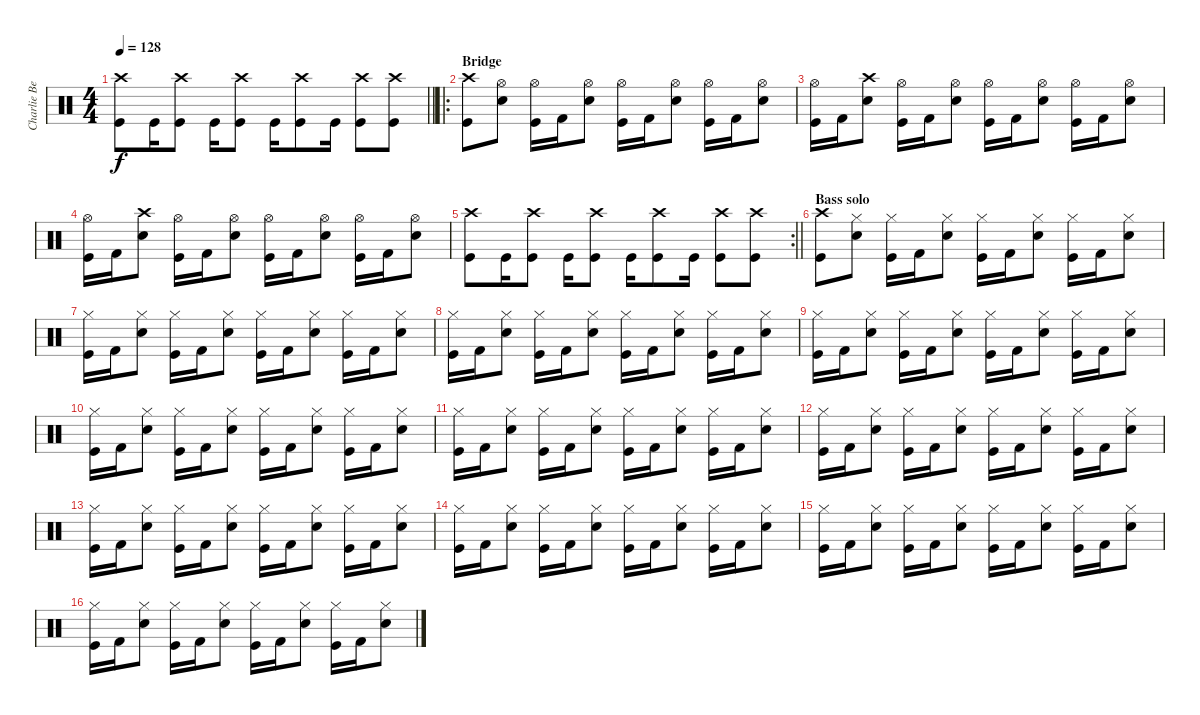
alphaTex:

\track ("Charlie Benante (Drums)" "Charlie Be") {instrument percussion}
\staff {score}
\articulation defaults
\ts (4 4)
\tempo 128
\clef neutral
\barLineRight lightlight
\ks c
("Crash high (hit)" "Kick (hit)").8{dy f} "Kick (hit)".16 ("Crash high (hit)" "Kick (hit)").8 "Kick (hit)".16 ("Crash high (hit)" "Kick (hit)").8 "Kick (hit)".16 ("Crash high (hit)" "Kick (hit)").8 "Kick (hit)".16 ("Crash high (hit)" "Kick (hit)").8 ("Crash high (hit)" "Kick (hit)").8 |
\ro
\section ("" "Bridge")
("Crash high (hit)" "Kick (hit)").8 ("Hi-Hat (open)" "Snare (hit) 2").8 ("Hi-Hat (open)" "Kick (hit)").16 "Kick (hit) 2".16 ("Hi-Hat (open)" "Snare (hit) 2").8 ("Hi-Hat (open)" "Kick (hit)").16 "Kick (hit) 2".16 ("Hi-Hat (open)" "Snare (hit) 2").8 ("Hi-Hat (open)" "Kick (hit)").16 "Kick (hit) 2".16 ("Hi-Hat (open)" "Snare (hit) 2").8 |
("Hi-Hat (open)" "Kick (hit)").16 "Kick (hit) 2".16 ("Crash high (hit)" "Snare (hit) 2").8 ("Hi-Hat (open)" "Kick (hit)").16 "Kick (hit) 2".16 ("Hi-Hat (open)" "Snare (hit) 2").8 ("Hi-Hat (open)" "Kick (hit)").16 "Kick (hit) 2".16 ("Hi-Hat (open)" "Snare (hit) 2").8 ("Hi-Hat (open)" "Kick (hit)").16 "Kick (hit) 2".16 ("Hi-Hat (open)" "Snare (hit) 2").8 |
("Hi-Hat (open)" "Kick (hit)").16 "Kick (hit) 2".16 ("Crash high (hit)" "Snare (hit) 2").8 ("Hi-Hat (open)" "Kick (hit)").16 "Kick (hit) 2".16 ("Hi-Hat (open)" "Snare (hit) 2").8 ("Hi-Hat (open)" "Kick (hit)").16 "Kick (hit) 2".16 ("Hi-Hat (open)" "Snare (hit) 2").8 ("Hi-Hat (open)" "Kick (hit)").16 "Kick (hit) 2".16 ("Hi-Hat (open)" "Snare (hit) 2").8 |
\rc 2
\barLineRight lightlight
("Crash high (hit)" "Kick (hit)").8 "Kick (hit)".16 ("Crash high (hit)" "Kick (hit)").8 "Kick (hit)".16 ("Crash high (hit)" "Kick (hit)").8 "Kick (hit)".16 ("Crash high (hit)" "Kick (hit)").8 "Kick (hit)".16 ("Crash high (hit)" "Kick (hit)").8 ("Crash high (hit)" "Kick (hit)").8 |
\section ("" "Bass solo")
("Crash high (hit)" "Kick (hit)").8 ("Hi-Hat (closed)" "Snare (hit) 2").8 ("Hi-Hat (closed)" "Kick (hit)").16 "Kick (hit) 2".16 ("Hi-Hat (closed)" "Snare (hit) 2").8 ("Hi-Hat (closed)" "Kick (hit)").16 "Kick (hit) 2".16 ("Hi-Hat (closed)" "Snare (hit) 2").8 ("Hi-Hat (closed)" "Kick (hit)").16 "Kick (hit) 2".16 ("Hi-Hat (closed)" "Snare (hit) 2").8 |
("Hi-Hat (closed)" "Kick (hit)").16 "Kick (hit) 2".16 ("Hi-Hat (closed)" "Snare (hit) 2").8 ("Hi-Hat (closed)" "Kick (hit)").16 "Kick (hit) 2".16 ("Hi-Hat (closed)" "Snare (hit) 2").8 ("Hi-Hat (closed)" "Kick (hit)").16 "Kick (hit) 2".16 ("Hi-Hat (closed)" "Snare (hit) 2").8 ("Hi-Hat (closed)" "Kick (hit)").16 "Kick (hit) 2".16 ("Hi-Hat (closed)" "Snare (hit) 2").8 |
("Hi-Hat (closed)" "Kick (hit)").16 "Kick (hit) 2".16 ("Hi-Hat (closed)" "Snare (hit) 2").8 ("Hi-Hat (closed)" "Kick (hit)").16 "Kick (hit) 2".16 ("Hi-Hat (closed)" "Snare (hit) 2").8 ("Hi-Hat (closed)" "Kick (hit)").16 "Kick (hit) 2".16 ("Hi-Hat (closed)" "Snare (hit) 2").8 ("Hi-Hat (closed)" "Kick (hit)").16 "Kick (hit) 2".16 ("Hi-Hat (closed)" "Snare (hit) 2").8 |
("Hi-Hat (closed)" "Kick (hit)").16 "Kick (hit) 2".16 ("Hi-Hat (closed)" "Snare (hit) 2").8 ("Hi-Hat (closed)" "Kick (hit)").16 "Kick (hit) 2".16 ("Hi-Hat (closed)" "Snare (hit) 2").8 ("Hi-Hat (closed)" "Kick (hit)").16 "Kick (hit) 2".16 ("Hi-Hat (closed)" "Snare (hit) 2").8 ("Hi-Hat (closed)" "Kick (hit)").16 "Kick (hit) 2".16 ("Hi-Hat (closed)" "Snare (hit) 2").8 |
("Hi-Hat (closed)" "Kick (hit)").16 "Kick (hit) 2".16 ("Hi-Hat (closed)" "Snare (hit) 2").8 ("Hi-Hat (closed)" "Kick (hit)").16 "Kick (hit) 2".16 ("Hi-Hat (closed)" "Snare (hit) 2").8 ("Hi-Hat (closed)" "Kick (hit)").16 "Kick (hit) 2".16 ("Hi-Hat (closed)" "Snare (hit) 2").8 ("Hi-Hat (closed)" "Kick (hit)").16 "Kick (hit) 2".16 ("Hi-Hat (closed)" "Snare (hit) 2").8 |
("Hi-Hat (closed)" "Kick (hit)").16 "Kick (hit) 2".16 ("Hi-Hat (closed)" "Snare (hit) 2").8 ("Hi-Hat (closed)" "Kick (hit)").16 "Kick (hit) 2".16 ("Hi-Hat (closed)" "Snare (hit) 2").8 ("Hi-Hat (closed)" "Kick (hit)").16 "Kick (hit) 2".16 ("Hi-Hat (closed)" "Snare (hit) 2").8 ("Hi-Hat (closed)" "Kick (hit)").16 "Kick (hit) 2".16 ("Hi-Hat (closed)" "Snare (hit) 2").8 |
("Hi-Hat (closed)" "Kick (hit)").16 "Kick (hit) 2".16 ("Hi-Hat (closed)" "Snare (hit) 2").8 ("Hi-Hat (closed)" "Kick (hit)").16 "Kick (hit) 2".16 ("Hi-Hat (closed)" "Snare (hit) 2").8 ("Hi-Hat (closed)" "Kick (hit)").16 "Kick (hit) 2".16 ("Hi-Hat (closed)" "Snare (hit) 2").8 ("Hi-Hat (closed)" "Kick (hit)").16 "Kick (hit) 2".16 ("Hi-Hat (closed)" "Snare (hit) 2").8 |
("Hi-Hat (closed)" "Kick (hit)").16 "Kick (hit) 2".16 ("Hi-Hat (closed)" "Snare (hit) 2").8 ("Hi-Hat (closed)" "Kick (hit)").16 "Kick (hit) 2".16 ("Hi-Hat (closed)" "Snare (hit) 2").8 ("Hi-Hat (closed)" "Kick (hit)").16 "Kick (hit) 2".16 ("Hi-Hat (closed)" "Snare (hit) 2").8 ("Hi-Hat (closed)" "Kick (hit)").16 "Kick (hit) 2".16 ("Hi-Hat (closed)" "Snare (hit) 2").8 |
("Hi-Hat (closed)" "Kick (hit)").16 "Kick (hit) 2".16 ("Hi-Hat (closed)" "Snare (hit) 2").8 ("Hi-Hat (closed)" "Kick (hit)").16 "Kick (hit) 2".16 ("Hi-Hat (closed)" "Snare (hit) 2").8 ("Hi-Hat (closed)" "Kick (hit)").16 "Kick (hit) 2".16 ("Hi-Hat (closed)" "Snare (hit) 2").8 ("Hi-Hat (closed)" "Kick (hit)").16 "Kick (hit) 2".16 ("Hi-Hat (closed)" "Snare (hit) 2").8 |
("Hi-Hat (closed)" "Kick (hit)").16 "Kick (hit) 2".16 ("Hi-Hat (closed)" "Snare (hit) 2").8 ("Hi-Hat (closed)" "Kick (hit)").16 "Kick (hit) 2".16 ("Hi-Hat (closed)" "Snare (hit) 2").8 ("Hi-Hat (closed)" "Kick (hit)").16 "Kick (hit) 2".16 ("Hi-Hat (closed)" "Snare (hit) 2").8 ("Hi-Hat (closed)" "Kick (hit)").16 "Kick (hit) 2".16 ("Hi-Hat (closed)" "Snare (hit) 2").8 |
("Hi-Hat (closed)" "Kick (hit)").16 "Kick (hit) 2".16 ("Hi-Hat (closed)" "Snare (hit) 2").8 ("Hi-Hat (closed)" "Kick (hit)").16 "Kick (hit) 2".16 ("Hi-Hat (closed)" "Snare (hit) 2").8 ("Hi-Hat (closed)" "Kick (hit)").16 "Kick (hit) 2".16 ("Hi-Hat (closed)" "Snare (hit) 2").8 ("Hi-Hat (closed)" "Kick (hit)").16 "Kick (hit) 2".16 ("Hi-Hat (closed)" "Snare (hit) 2").8
